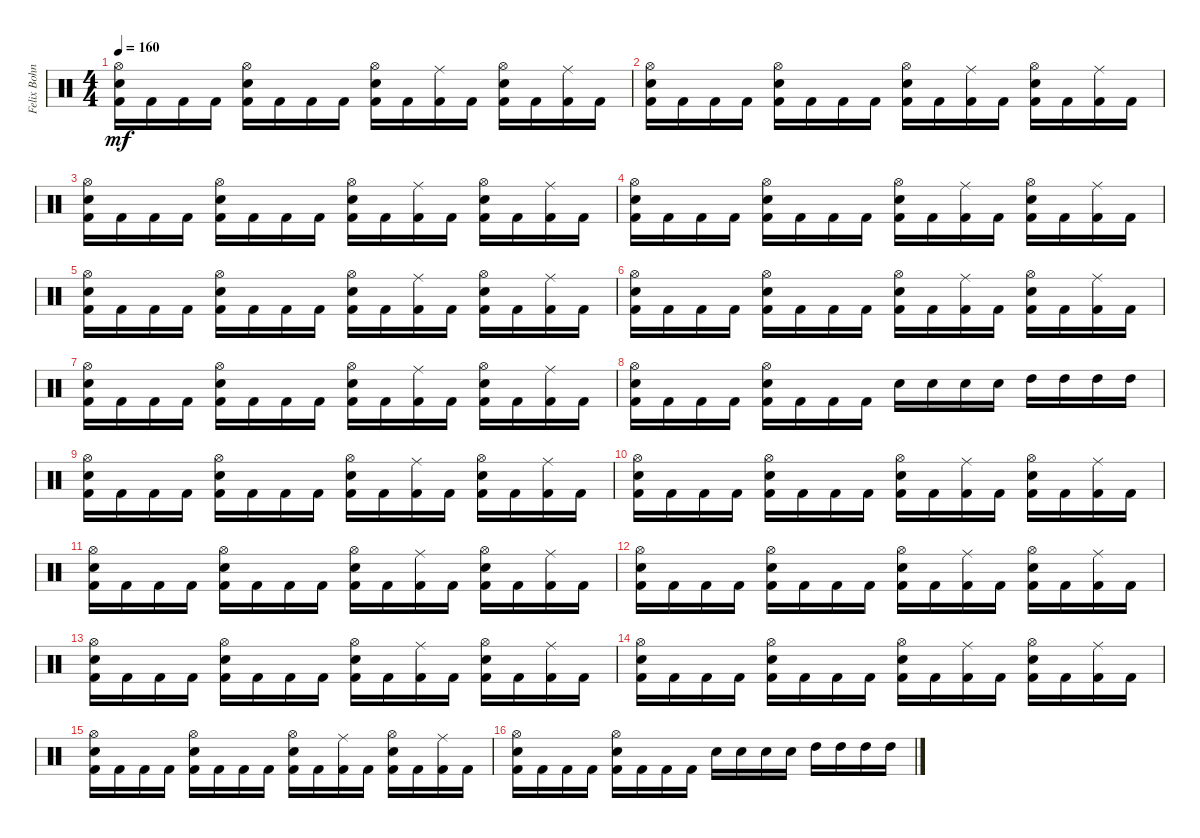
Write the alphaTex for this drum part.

\track ("Felix Bohnke" "Felix Bohn") {instrument percussion}
\staff {score}
\articulation defaults
\ts (4 4)
\tempo 160
\clef neutral
\ks c
("Hi-Hat (open)" "Electric Snare (hit)" "Kick (hit) 2").16{dy mf} "Kick (hit) 2".16 "Kick (hit) 2".16 "Kick (hit) 2".16 ("Hi-Hat (open)" "Electric Snare (hit)" "Kick (hit) 2").16 "Kick (hit) 2".16 "Kick (hit) 2".16 "Kick (hit) 2".16 ("Hi-Hat (open)" "Electric Snare (hit)" "Kick (hit) 2").16 "Kick (hit) 2".16 ("Ride (middle)" "Kick (hit) 2").16 "Kick (hit) 2".16 ("Hi-Hat (open)" "Electric Snare (hit)" "Kick (hit) 2").16 "Kick (hit) 2".16 ("Ride (middle)" "Kick (hit) 2").16 "Kick (hit) 2".16 |
("Hi-Hat (open)" "Electric Snare (hit)" "Kick (hit) 2").16 "Kick (hit) 2".16 "Kick (hit) 2".16 "Kick (hit) 2".16 ("Hi-Hat (open)" "Electric Snare (hit)" "Kick (hit) 2").16 "Kick (hit) 2".16 "Kick (hit) 2".16 "Kick (hit) 2".16 ("Hi-Hat (open)" "Electric Snare (hit)" "Kick (hit) 2").16 "Kick (hit) 2".16 ("Ride (middle)" "Kick (hit) 2").16 "Kick (hit) 2".16 ("Hi-Hat (open)" "Electric Snare (hit)" "Kick (hit) 2").16 "Kick (hit) 2".16 ("Ride (middle)" "Kick (hit) 2").16 "Kick (hit) 2".16 |
("Hi-Hat (open)" "Electric Snare (hit)" "Kick (hit) 2").16 "Kick (hit) 2".16 "Kick (hit) 2".16 "Kick (hit) 2".16 ("Hi-Hat (open)" "Electric Snare (hit)" "Kick (hit) 2").16 "Kick (hit) 2".16 "Kick (hit) 2".16 "Kick (hit) 2".16 ("Hi-Hat (open)" "Electric Snare (hit)" "Kick (hit) 2").16 "Kick (hit) 2".16 ("Ride (middle)" "Kick (hit) 2").16 "Kick (hit) 2".16 ("Hi-Hat (open)" "Electric Snare (hit)" "Kick (hit) 2").16 "Kick (hit) 2".16 ("Ride (middle)" "Kick (hit) 2").16 "Kick (hit) 2".16 |
("Hi-Hat (open)" "Electric Snare (hit)" "Kick (hit) 2").16 "Kick (hit) 2".16 "Kick (hit) 2".16 "Kick (hit) 2".16 ("Hi-Hat (open)" "Electric Snare (hit)" "Kick (hit) 2").16 "Kick (hit) 2".16 "Kick (hit) 2".16 "Kick (hit) 2".16 ("Hi-Hat (open)" "Electric Snare (hit)" "Kick (hit) 2").16 "Kick (hit) 2".16 ("Ride (middle)" "Kick (hit) 2").16 "Kick (hit) 2".16 ("Hi-Hat (open)" "Electric Snare (hit)" "Kick (hit) 2").16 "Kick (hit) 2".16 ("Ride (middle)" "Kick (hit) 2").16 "Kick (hit) 2".16 |
("Hi-Hat (open)" "Electric Snare (hit)" "Kick (hit) 2").16 "Kick (hit) 2".16 "Kick (hit) 2".16 "Kick (hit) 2".16 ("Hi-Hat (open)" "Electric Snare (hit)" "Kick (hit) 2").16 "Kick (hit) 2".16 "Kick (hit) 2".16 "Kick (hit) 2".16 ("Hi-Hat (open)" "Electric Snare (hit)" "Kick (hit) 2").16 "Kick (hit) 2".16 ("Ride (middle)" "Kick (hit) 2").16 "Kick (hit) 2".16 ("Hi-Hat (open)" "Electric Snare (hit)" "Kick (hit) 2").16 "Kick (hit) 2".16 ("Ride (middle)" "Kick (hit) 2").16 "Kick (hit) 2".16 |
("Hi-Hat (open)" "Electric Snare (hit)" "Kick (hit) 2").16 "Kick (hit) 2".16 "Kick (hit) 2".16 "Kick (hit) 2".16 ("Hi-Hat (open)" "Electric Snare (hit)" "Kick (hit) 2").16 "Kick (hit) 2".16 "Kick (hit) 2".16 "Kick (hit) 2".16 ("Hi-Hat (open)" "Electric Snare (hit)" "Kick (hit) 2").16 "Kick (hit) 2".16 ("Ride (middle)" "Kick (hit) 2").16 "Kick (hit) 2".16 ("Hi-Hat (open)" "Electric Snare (hit)" "Kick (hit) 2").16 "Kick (hit) 2".16 ("Ride (middle)" "Kick (hit) 2").16 "Kick (hit) 2".16 |
("Hi-Hat (open)" "Electric Snare (hit)" "Kick (hit) 2").16 "Kick (hit) 2".16 "Kick (hit) 2".16 "Kick (hit) 2".16 ("Hi-Hat (open)" "Electric Snare (hit)" "Kick (hit) 2").16 "Kick (hit) 2".16 "Kick (hit) 2".16 "Kick (hit) 2".16 ("Hi-Hat (open)" "Electric Snare (hit)" "Kick (hit) 2").16 "Kick (hit) 2".16 ("Ride (middle)" "Kick (hit) 2").16 "Kick (hit) 2".16 ("Hi-Hat (open)" "Electric Snare (hit)" "Kick (hit) 2").16 "Kick (hit) 2".16 ("Ride (middle)" "Kick (hit) 2").16 "Kick (hit) 2".16 |
("Hi-Hat (open)" "Electric Snare (hit)" "Kick (hit) 2").16 "Kick (hit) 2".16 "Kick (hit) 2".16 "Kick (hit) 2".16 ("Hi-Hat (open)" "Electric Snare (hit)" "Kick (hit) 2").16 "Kick (hit) 2".16 "Kick (hit) 2".16 "Kick (hit) 2".16 "Electric Snare (hit)".16 "Electric Snare (hit)".16 "Electric Snare (hit)".16 "Electric Snare (hit)".16 "High Tom (hit)".16 "High Tom (hit)".16 "High Tom (hit)".16 "High Tom (hit)".16 |
("Hi-Hat (open)" "Electric Snare (hit)" "Kick (hit) 2").16 "Kick (hit) 2".16 "Kick (hit) 2".16 "Kick (hit) 2".16 ("Hi-Hat (open)" "Electric Snare (hit)" "Kick (hit) 2").16 "Kick (hit) 2".16 "Kick (hit) 2".16 "Kick (hit) 2".16 ("Hi-Hat (open)" "Electric Snare (hit)" "Kick (hit) 2").16 "Kick (hit) 2".16 ("Ride (middle)" "Kick (hit) 2").16 "Kick (hit) 2".16 ("Hi-Hat (open)" "Electric Snare (hit)" "Kick (hit) 2").16 "Kick (hit) 2".16 ("Ride (middle)" "Kick (hit) 2").16 "Kick (hit) 2".16 |
("Hi-Hat (open)" "Electric Snare (hit)" "Kick (hit) 2").16 "Kick (hit) 2".16 "Kick (hit) 2".16 "Kick (hit) 2".16 ("Hi-Hat (open)" "Electric Snare (hit)" "Kick (hit) 2").16 "Kick (hit) 2".16 "Kick (hit) 2".16 "Kick (hit) 2".16 ("Hi-Hat (open)" "Electric Snare (hit)" "Kick (hit) 2").16 "Kick (hit) 2".16 ("Ride (middle)" "Kick (hit) 2").16 "Kick (hit) 2".16 ("Hi-Hat (open)" "Electric Snare (hit)" "Kick (hit) 2").16 "Kick (hit) 2".16 ("Ride (middle)" "Kick (hit) 2").16 "Kick (hit) 2".16 |
("Hi-Hat (open)" "Electric Snare (hit)" "Kick (hit) 2").16 "Kick (hit) 2".16 "Kick (hit) 2".16 "Kick (hit) 2".16 ("Hi-Hat (open)" "Electric Snare (hit)" "Kick (hit) 2").16 "Kick (hit) 2".16 "Kick (hit) 2".16 "Kick (hit) 2".16 ("Hi-Hat (open)" "Electric Snare (hit)" "Kick (hit) 2").16 "Kick (hit) 2".16 ("Ride (middle)" "Kick (hit) 2").16 "Kick (hit) 2".16 ("Hi-Hat (open)" "Electric Snare (hit)" "Kick (hit) 2").16 "Kick (hit) 2".16 ("Ride (middle)" "Kick (hit) 2").16 "Kick (hit) 2".16 |
("Hi-Hat (open)" "Electric Snare (hit)" "Kick (hit) 2").16 "Kick (hit) 2".16 "Kick (hit) 2".16 "Kick (hit) 2".16 ("Hi-Hat (open)" "Electric Snare (hit)" "Kick (hit) 2").16 "Kick (hit) 2".16 "Kick (hit) 2".16 "Kick (hit) 2".16 ("Hi-Hat (open)" "Electric Snare (hit)" "Kick (hit) 2").16 "Kick (hit) 2".16 ("Ride (middle)" "Kick (hit) 2").16 "Kick (hit) 2".16 ("Hi-Hat (open)" "Electric Snare (hit)" "Kick (hit) 2").16 "Kick (hit) 2".16 ("Ride (middle)" "Kick (hit) 2").16 "Kick (hit) 2".16 |
("Hi-Hat (open)" "Electric Snare (hit)" "Kick (hit) 2").16 "Kick (hit) 2".16 "Kick (hit) 2".16 "Kick (hit) 2".16 ("Hi-Hat (open)" "Electric Snare (hit)" "Kick (hit) 2").16 "Kick (hit) 2".16 "Kick (hit) 2".16 "Kick (hit) 2".16 ("Hi-Hat (open)" "Electric Snare (hit)" "Kick (hit) 2").16 "Kick (hit) 2".16 ("Ride (middle)" "Kick (hit) 2").16 "Kick (hit) 2".16 ("Hi-Hat (open)" "Electric Snare (hit)" "Kick (hit) 2").16 "Kick (hit) 2".16 ("Ride (middle)" "Kick (hit) 2").16 "Kick (hit) 2".16 |
("Hi-Hat (open)" "Electric Snare (hit)" "Kick (hit) 2").16 "Kick (hit) 2".16 "Kick (hit) 2".16 "Kick (hit) 2".16 ("Hi-Hat (open)" "Electric Snare (hit)" "Kick (hit) 2").16 "Kick (hit) 2".16 "Kick (hit) 2".16 "Kick (hit) 2".16 ("Hi-Hat (open)" "Electric Snare (hit)" "Kick (hit) 2").16 "Kick (hit) 2".16 ("Ride (middle)" "Kick (hit) 2").16 "Kick (hit) 2".16 ("Hi-Hat (open)" "Electric Snare (hit)" "Kick (hit) 2").16 "Kick (hit) 2".16 ("Ride (middle)" "Kick (hit) 2").16 "Kick (hit) 2".16 |
("Hi-Hat (open)" "Electric Snare (hit)" "Kick (hit) 2").16 "Kick (hit) 2".16 "Kick (hit) 2".16 "Kick (hit) 2".16 ("Hi-Hat (open)" "Electric Snare (hit)" "Kick (hit) 2").16 "Kick (hit) 2".16 "Kick (hit) 2".16 "Kick (hit) 2".16 ("Hi-Hat (open)" "Electric Snare (hit)" "Kick (hit) 2").16 "Kick (hit) 2".16 ("Ride (middle)" "Kick (hit) 2").16 "Kick (hit) 2".16 ("Hi-Hat (open)" "Electric Snare (hit)" "Kick (hit) 2").16 "Kick (hit) 2".16 ("Ride (middle)" "Kick (hit) 2").16 "Kick (hit) 2".16 |
("Hi-Hat (open)" "Electric Snare (hit)" "Kick (hit) 2").16 "Kick (hit) 2".16 "Kick (hit) 2".16 "Kick (hit) 2".16 ("Hi-Hat (open)" "Electric Snare (hit)" "Kick (hit) 2").16 "Kick (hit) 2".16 "Kick (hit) 2".16 "Kick (hit) 2".16 "Electric Snare (hit)".16 "Electric Snare (hit)".16 "Electric Snare (hit)".16 "Electric Snare (hit)".16 "High Tom (hit)".16 "High Tom (hit)".16 "High Tom (hit)".16 "High Tom (hit)".16
